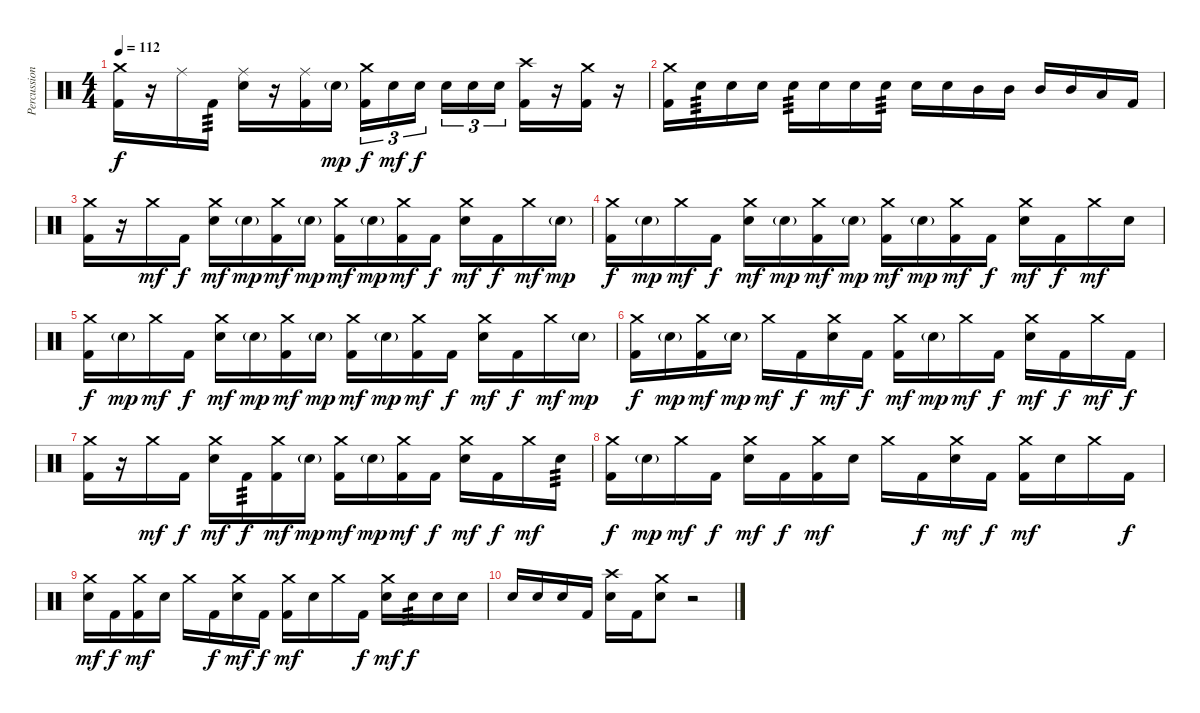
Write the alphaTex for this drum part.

\track ("Percussion" "Percussion") {instrument percussion}
\staff {score}
\articulation defaults
\ts (4 4)
\tempo 112
\clef neutral
\ks c
("Crash medium (hit)" "Kick (hit) 2").16{dy f} r.16 "Ride (middle)".16 "Kick (hit) 2".16{tp 3} ("Ride (middle)" "Snare (hit) 2").16 r.16 ("Ride (middle)" "Kick (hit) 2").16 "Snare (hit) 2"{g}.16{dy mp} ("Crash medium (hit)" "Kick (hit) 2").16{tu (3 2) dy f} "Snare (hit) 2".16{tu (3 2) dy mf} "Snare (hit) 2".16{tu (3 2) dy f beam splitsecondary} "Snare (hit) 2".16{tu (3 2)} "Snare (hit) 2".16{tu (3 2)} "Snare (hit) 2".16{tu (3 2)} ("Crash high (hit)" "Kick (hit) 2").16 r.16 ("Crash medium (hit)" "Kick (hit) 2").16 r.16 |
("Crash medium (hit)" "Kick (hit) 2").16 "Snare (hit) 2".16{tp 3} "Snare (hit) 2".16 "Snare (hit) 2".16 "Snare (hit) 2".16{tp 3} "Snare (hit) 2".16 "Snare (hit) 2".16 "Snare (hit) 2".16{tp 3} "Snare (hit) 2".16 "Snare (hit) 2".16 "Mid Tom (hit)".16 "Mid Tom (hit)".16 "Mid Tom (hit)".16 "Mid Tom (hit)".16 "Low Tom (hit)".16 "Kick (hit) 2".16 |
("Crash medium (hit)" "Kick (hit) 2").16 r.16 "Crash medium (hit)".16{dy mf} "Kick (hit) 2".16{dy f} ("Crash medium (hit)" "Snare (hit) 2").16{dy mf} "Snare (hit) 2"{g}.16{dy mp} ("Crash medium (hit)" "Kick (hit) 2").16{dy mf} "Snare (hit) 2"{g}.16{dy mp} ("Crash medium (hit)" "Kick (hit) 2").16{dy mf} "Snare (hit) 2"{g}.16{dy mp} ("Crash medium (hit)" "Kick (hit) 2").16{dy mf} "Kick (hit) 2".16{dy f} ("Crash medium (hit)" "Snare (hit) 2").16{dy mf} "Kick (hit) 2".16{dy f} "Crash medium (hit)".16{dy mf} "Snare (hit) 2"{g}.16{dy mp} |
("Crash medium (hit)" "Kick (hit) 2").16{dy f} "Snare (hit) 2"{g}.16{dy mp} "Crash medium (hit)".16{dy mf} "Kick (hit) 2".16{dy f} ("Crash medium (hit)" "Snare (hit) 2").16{dy mf} "Snare (hit) 2"{g}.16{dy mp} ("Crash medium (hit)" "Kick (hit) 2").16{dy mf} "Snare (hit) 2"{g}.16{dy mp} ("Crash medium (hit)" "Kick (hit) 2").16{dy mf} "Snare (hit) 2"{g}.16{dy mp} ("Crash medium (hit)" "Kick (hit) 2").16{dy mf} "Kick (hit) 2".16{dy f} ("Crash medium (hit)" "Snare (hit) 2").16{dy mf} "Kick (hit) 2".16{dy f} "Crash medium (hit)".16{dy mf} "Snare (hit) 2".16 |
("Crash medium (hit)" "Kick (hit) 2").16{dy f} "Snare (hit) 2"{g}.16{dy mp} "Crash medium (hit)".16{dy mf} "Kick (hit) 2".16{dy f} ("Crash medium (hit)" "Snare (hit) 2").16{dy mf} "Snare (hit) 2"{g}.16{dy mp} ("Crash medium (hit)" "Kick (hit) 2").16{dy mf} "Snare (hit) 2"{g}.16{dy mp} ("Crash medium (hit)" "Kick (hit) 2").16{dy mf} "Snare (hit) 2"{g}.16{dy mp} ("Crash medium (hit)" "Kick (hit) 2").16{dy mf} "Kick (hit) 2".16{dy f} ("Crash medium (hit)" "Snare (hit) 2").16{dy mf} "Kick (hit) 2".16{dy f} "Crash medium (hit)".16{dy mf} "Snare (hit) 2"{g}.16{dy mp} |
("Crash medium (hit)" "Kick (hit) 2").16{dy f} "Snare (hit) 2"{g}.16{dy mp} ("Crash medium (hit)" "Kick (hit) 2").16{dy mf} "Snare (hit) 2"{g}.16{dy mp} "Crash medium (hit)".16{dy mf} "Kick (hit) 2".16{dy f} ("Crash medium (hit)" "Snare (hit) 2").16{dy mf} "Kick (hit) 2".16{dy f} ("Crash medium (hit)" "Kick (hit) 2").16{dy mf} "Snare (hit) 2"{g}.16{dy mp} "Crash medium (hit)".16{dy mf} "Kick (hit) 2".16{dy f} ("Crash medium (hit)" "Snare (hit) 2").16{dy mf} "Kick (hit) 2".16{dy f} "Crash medium (hit)".16{dy mf} "Kick (hit) 2".16{dy f} |
("Crash medium (hit)" "Kick (hit) 2").16 r.16 "Crash medium (hit)".16{dy mf} "Kick (hit) 2".16{dy f} ("Crash medium (hit)" "Snare (hit) 2").16{dy mf} "Kick (hit) 2".16{tp 3 dy f} ("Crash medium (hit)" "Kick (hit) 2").16{dy mf} "Snare (hit) 2"{g}.16{dy mp} ("Crash medium (hit)" "Kick (hit) 2").16{dy mf} "Snare (hit) 2"{g}.16{dy mp} ("Crash medium (hit)" "Kick (hit) 2").16{dy mf} "Kick (hit) 2".16{dy f} ("Crash medium (hit)" "Snare (hit) 2").16{dy mf} "Kick (hit) 2".16{dy f} "Crash medium (hit)".16{dy mf} "Snare (hit) 2".16{tp 3} |
("Crash medium (hit)" "Kick (hit) 2").16{dy f} "Snare (hit) 2"{g}.16{dy mp} "Crash medium (hit)".16{dy mf} "Kick (hit) 2".16{dy f} ("Crash medium (hit)" "Snare (hit) 2").16{dy mf} "Kick (hit) 2".16{dy f} ("Crash medium (hit)" "Kick (hit) 2").16{dy mf} "Snare (hit) 2".16 "Crash medium (hit)".16 "Kick (hit) 2".16{dy f} ("Crash medium (hit)" "Snare (hit) 2").16{dy mf} "Kick (hit) 2".16{dy f} ("Crash medium (hit)" "Kick (hit) 2").16{dy mf} "Snare (hit) 2".16 "Crash medium (hit)".16 "Kick (hit) 2".16{dy f} |
("Crash medium (hit)" "Snare (hit) 2").16{dy mf} "Kick (hit) 2".16{dy f} ("Crash medium (hit)" "Kick (hit) 2").16{dy mf} "Snare (hit) 2".16 "Crash medium (hit)".16 "Kick (hit) 2".16{dy f} ("Crash medium (hit)" "Snare (hit) 2").16{dy mf} "Kick (hit) 2".16{dy f} ("Crash medium (hit)" "Kick (hit) 2").16{dy mf} "Snare (hit) 2".16 "Crash medium (hit)".16 "Kick (hit) 2".16{dy f} ("Crash medium (hit)" "Snare (hit) 2").16{dy mf} "Snare (hit) 2".16{tp 3 dy f} "Snare (hit) 2".16 "Snare (hit) 2".16 |
"Snare (hit) 2".16 "Snare (hit) 2".16 "Snare (hit) 2".16 "Kick (hit) 2".16 ("Crash high (hit)" "Snare (hit) 2").16 "Kick (hit) 2".16 ("Crash medium (hit)" "Snare (hit) 2").8 r.2
